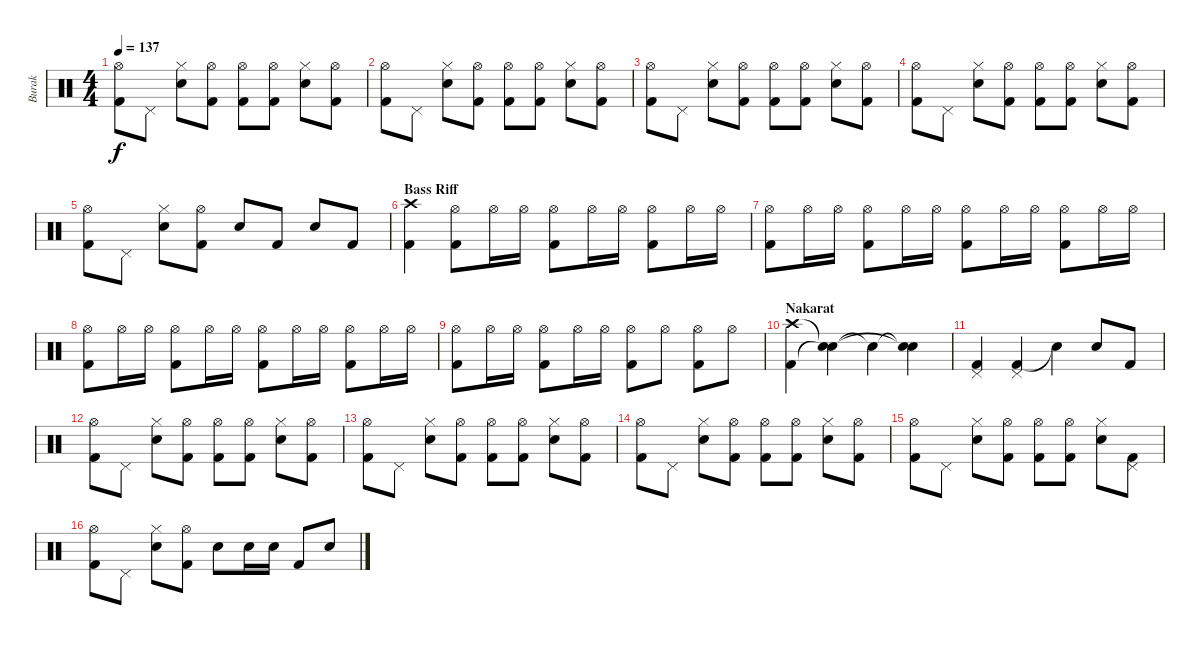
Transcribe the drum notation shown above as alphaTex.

\track ("Burak" "Burak") {instrument percussion}
\staff {score}
\articulation defaults
\ts (4 4)
\tempo 137
\clef neutral
\ks c
("Kick (hit) 2" "Hi-Hat (open)").8{dy f} "Pedal Hi-Hat (hit)".8 ("Electric Snare (hit)" "Hi-Hat (closed)").8 ("Kick (hit) 2" "Hi-Hat (open)").8 ("Kick (hit) 2" "Hi-Hat (open)").8 ("Kick (hit) 2" "Hi-Hat (open)").8 ("Electric Snare (hit)" "Hi-Hat (closed)").8 ("Kick (hit) 2" "Hi-Hat (open)").8 |
("Kick (hit) 2" "Hi-Hat (open)").8 "Pedal Hi-Hat (hit)".8 ("Electric Snare (hit)" "Hi-Hat (closed)").8 ("Kick (hit) 2" "Hi-Hat (open)").8 ("Kick (hit) 2" "Hi-Hat (open)").8 ("Kick (hit) 2" "Hi-Hat (open)").8 ("Electric Snare (hit)" "Hi-Hat (closed)").8 ("Kick (hit) 2" "Hi-Hat (open)").8 |
("Kick (hit) 2" "Hi-Hat (open)").8 "Pedal Hi-Hat (hit)".8 ("Electric Snare (hit)" "Hi-Hat (closed)").8 ("Kick (hit) 2" "Hi-Hat (open)").8 ("Kick (hit) 2" "Hi-Hat (open)").8 ("Kick (hit) 2" "Hi-Hat (open)").8 ("Electric Snare (hit)" "Hi-Hat (closed)").8 ("Kick (hit) 2" "Hi-Hat (open)").8 |
("Kick (hit) 2" "Hi-Hat (open)").8 "Pedal Hi-Hat (hit)".8 ("Electric Snare (hit)" "Hi-Hat (closed)").8 ("Kick (hit) 2" "Hi-Hat (open)").8 ("Kick (hit) 2" "Hi-Hat (open)").8 ("Kick (hit) 2" "Hi-Hat (open)").8 ("Electric Snare (hit)" "Hi-Hat (closed)").8 ("Kick (hit) 2" "Hi-Hat (open)").8 |
("Kick (hit) 2" "Hi-Hat (open)").8 "Pedal Hi-Hat (hit)".8 ("Electric Snare (hit)" "Hi-Hat (closed)").8 ("Kick (hit) 2" "Hi-Hat (open)").8 "Electric Snare (hit)".8 "Kick (hit) 2".8 "Electric Snare (hit)".8 "Kick (hit) 2".8 |
\section ("" "Bass Riff")
("Kick (hit) 2" "Crash high (hit)").4{volume 10} ("Hi-Hat (open)" "Kick (hit) 2").8 "Hi-Hat (open)".16 "Hi-Hat (open)".16 ("Hi-Hat (open)" "Kick (hit) 2").8 "Hi-Hat (open)".16 "Hi-Hat (open)".16 ("Hi-Hat (open)" "Kick (hit) 2").8 "Hi-Hat (open)".16 "Hi-Hat (open)".16 |
("Hi-Hat (open)" "Kick (hit) 2").8 "Hi-Hat (open)".16 "Hi-Hat (open)".16 ("Hi-Hat (open)" "Kick (hit) 2").8 "Hi-Hat (open)".16 "Hi-Hat (open)".16 ("Hi-Hat (open)" "Kick (hit) 2").8 "Hi-Hat (open)".16 "Hi-Hat (open)".16 ("Hi-Hat (open)" "Kick (hit) 2").8 "Hi-Hat (open)".16 "Hi-Hat (open)".16 |
("Hi-Hat (open)" "Kick (hit) 2").8 "Hi-Hat (open)".16 "Hi-Hat (open)".16 ("Hi-Hat (open)" "Kick (hit) 2").8 "Hi-Hat (open)".16 "Hi-Hat (open)".16 ("Hi-Hat (open)" "Kick (hit) 2").8 "Hi-Hat (open)".16 "Hi-Hat (open)".16 ("Hi-Hat (open)" "Kick (hit) 2").8 "Hi-Hat (open)".16 "Hi-Hat (open)".16 |
("Hi-Hat (open)" "Kick (hit) 2").8 "Hi-Hat (open)".16 "Hi-Hat (open)".16 ("Hi-Hat (open)" "Kick (hit) 2").8 "Hi-Hat (open)".16 "Hi-Hat (open)".16 ("Hi-Hat (open)" "Kick (hit) 2").8 "Hi-Hat (open)".8 ("Hi-Hat (open)" "Kick (hit) 2").8 "Hi-Hat (open)".8 |
\section ("" "Nakarat")
("Kick (hit) 2" "Crash high (hit)").4{volume 15} ("Snare (hit)"{t} "Snare (hit)"{t}).4 "Snare (hit)"{t}.4 ("Snare (hit)"{t} "Snare (hit)"{t}).4 |
("Kick (hit) 2" "Pedal Hi-Hat (hit)").4 ("Kick (hit) 2" "Pedal Hi-Hat (hit)").4 "Snare (hit)"{t}.4 "Electric Snare (hit)".8 "Kick (hit) 2".8 |
("Kick (hit) 2" "Hi-Hat (open)").8 "Pedal Hi-Hat (hit)".8 ("Electric Snare (hit)" "Hi-Hat (closed)").8 ("Kick (hit) 2" "Hi-Hat (open)").8 ("Kick (hit) 2" "Hi-Hat (open)").8 ("Kick (hit) 2" "Hi-Hat (open)").8 ("Electric Snare (hit)" "Hi-Hat (closed)").8 ("Kick (hit) 2" "Hi-Hat (open)").8 |
("Kick (hit) 2" "Hi-Hat (open)").8 "Pedal Hi-Hat (hit)".8 ("Electric Snare (hit)" "Hi-Hat (closed)").8 ("Kick (hit) 2" "Hi-Hat (open)").8 ("Kick (hit) 2" "Hi-Hat (open)").8 ("Kick (hit) 2" "Hi-Hat (open)").8 ("Electric Snare (hit)" "Hi-Hat (closed)").8 ("Kick (hit) 2" "Hi-Hat (open)").8 |
("Kick (hit) 2" "Hi-Hat (open)").8 "Pedal Hi-Hat (hit)".8 ("Electric Snare (hit)" "Hi-Hat (closed)").8 ("Kick (hit) 2" "Hi-Hat (open)").8 ("Kick (hit) 2" "Hi-Hat (open)").8 ("Kick (hit) 2" "Hi-Hat (open)").8 ("Electric Snare (hit)" "Hi-Hat (closed)").8 ("Kick (hit) 2" "Hi-Hat (open)").8 |
("Kick (hit) 2" "Hi-Hat (open)").8 "Pedal Hi-Hat (hit)".8 ("Electric Snare (hit)" "Hi-Hat (closed)").8 ("Kick (hit) 2" "Hi-Hat (open)").8 ("Kick (hit) 2" "Hi-Hat (open)").8 ("Kick (hit) 2" "Hi-Hat (open)").8 ("Electric Snare (hit)" "Hi-Hat (closed)").8 ("Kick (hit) 2" "Pedal Hi-Hat (hit)").8 |
("Kick (hit) 2" "Hi-Hat (open)").8 "Pedal Hi-Hat (hit)".8 ("Electric Snare (hit)" "Hi-Hat (closed)").8 ("Kick (hit) 2" "Hi-Hat (open)").8 "Electric Snare (hit)".8 "Electric Snare (hit)".16 "Electric Snare (hit)".16 "Kick (hit) 2".8 "Electric Snare (hit)".8
